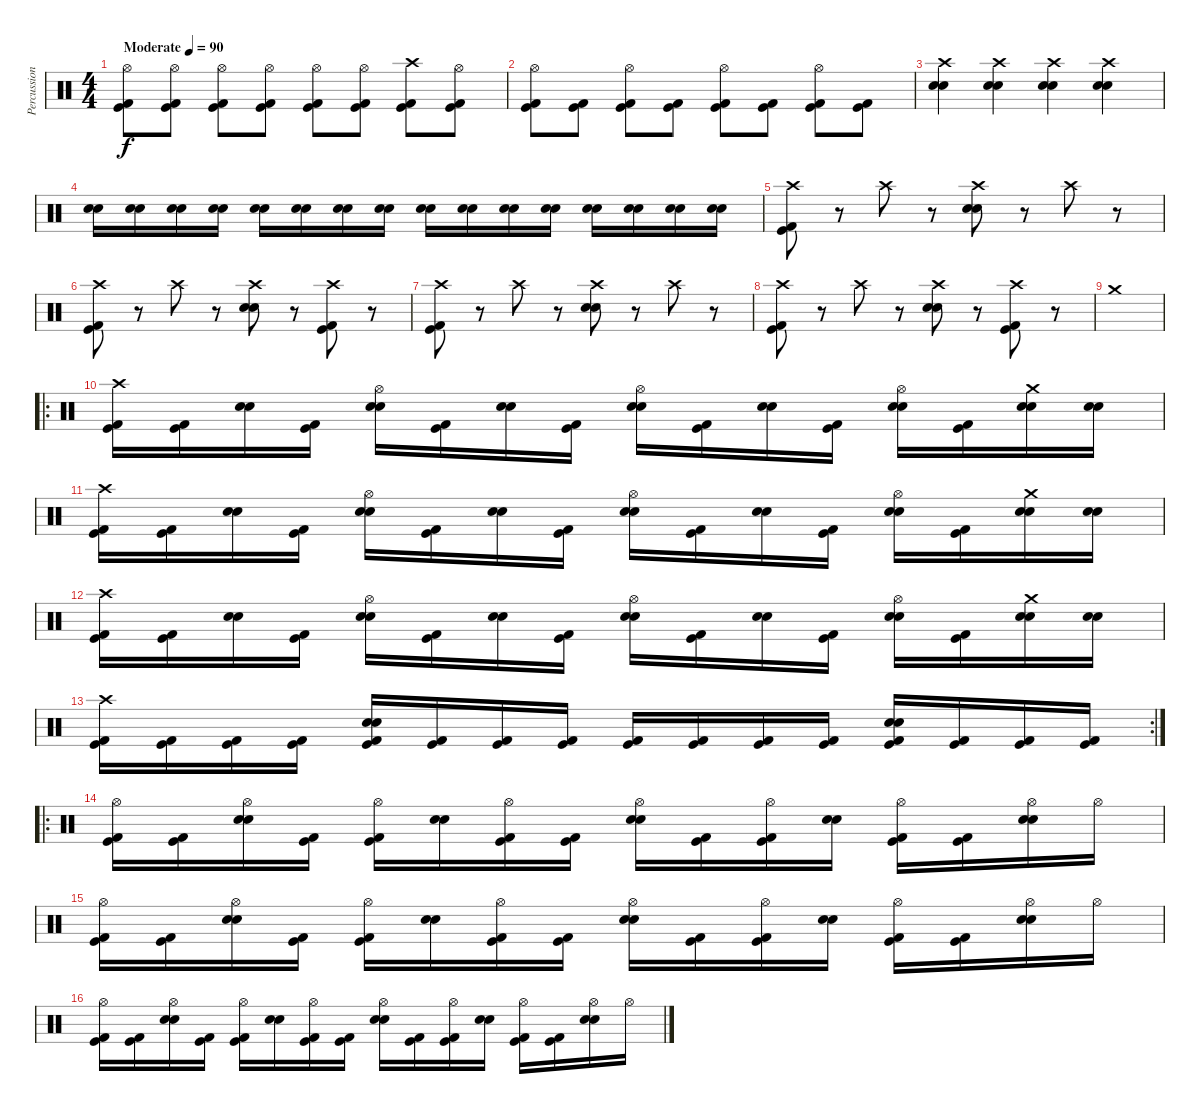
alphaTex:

\track ("Percussion" "Percussion") {instrument percussion}
\staff {score}
\articulation defaults
\ts (4 4)
\tempo (90 "Moderate")
\clef neutral
\ks c
("Kick (hit) 2" "Kick (hit)" "Hi-Hat (open)").8{dy f} ("Kick (hit) 2" "Kick (hit)" "Hi-Hat (open)").8 ("Kick (hit) 2" "Kick (hit)" "Hi-Hat (open)").8 ("Kick (hit) 2" "Kick (hit)" "Hi-Hat (open)").8 ("Kick (hit) 2" "Kick (hit)" "Hi-Hat (open)").8 ("Kick (hit) 2" "Kick (hit)" "Hi-Hat (open)").8 ("Kick (hit) 2" "Kick (hit)" "Crash high (hit)").8 ("Kick (hit) 2" "Kick (hit)" "Hi-Hat (open)").8 |
("Kick (hit) 2" "Kick (hit)" "Hi-Hat (open)").8 ("Kick (hit) 2" "Kick (hit)").8 ("Kick (hit) 2" "Kick (hit)" "Hi-Hat (open)").8 ("Kick (hit) 2" "Kick (hit)").8 ("Kick (hit) 2" "Kick (hit)" "Hi-Hat (open)").8 ("Kick (hit) 2" "Kick (hit)").8 ("Kick (hit) 2" "Kick (hit)" "Hi-Hat (open)").8 ("Kick (hit) 2" "Kick (hit)").8 |
("Snare (hit) 2" "Electric Snare (hit)" "Crash high (hit)").4 ("Snare (hit) 2" "Electric Snare (hit)" "Crash high (hit)").4 ("Snare (hit) 2" "Electric Snare (hit)" "Crash high (hit)").4 ("Snare (hit) 2" "Electric Snare (hit)" "Crash high (hit)").4 |
("Electric Snare (hit)" "Snare (hit) 2").16 ("Electric Snare (hit)" "Snare (hit) 2").16 ("Electric Snare (hit)" "Snare (hit) 2").16 ("Electric Snare (hit)" "Snare (hit) 2").16 ("Electric Snare (hit)" "Snare (hit) 2").16 ("Electric Snare (hit)" "Snare (hit) 2").16 ("Electric Snare (hit)" "Snare (hit) 2").16 ("Electric Snare (hit)" "Snare (hit) 2").16 ("Electric Snare (hit)" "Snare (hit) 2").16 ("Electric Snare (hit)" "Snare (hit) 2").16 ("Electric Snare (hit)" "Snare (hit) 2").16 ("Electric Snare (hit)" "Snare (hit) 2").16 ("Electric Snare (hit)" "Snare (hit) 2").16 ("Electric Snare (hit)" "Snare (hit) 2").16 ("Electric Snare (hit)" "Snare (hit) 2").16 ("Electric Snare (hit)" "Snare (hit) 2").16 |
("Kick (hit)" "Kick (hit) 2" "Crash high (hit)").8 r.8 "Crash high (hit)".8 r.8 ("Snare (hit) 2" "Electric Snare (hit)" "Crash high (hit)").8 r.8 "Crash high (hit)".8 r.8 |
("Kick (hit)" "Kick (hit) 2" "Crash high (hit)").8 r.8 "Crash high (hit)".8 r.8 ("Snare (hit) 2" "Electric Snare (hit)" "Crash high (hit)").8 r.8 ("Kick (hit) 2" "Kick (hit)" "Crash high (hit)").8 r.8 |
("Kick (hit)" "Kick (hit) 2" "Crash high (hit)").8 r.8 "Crash high (hit)".8 r.8 ("Snare (hit) 2" "Electric Snare (hit)" "Crash high (hit)").8 r.8 "Crash high (hit)".8 r.8 |
("Kick (hit)" "Kick (hit) 2" "Crash high (hit)").8 r.8 "Crash high (hit)".8 r.8 ("Snare (hit) 2" "Electric Snare (hit)" "Crash high (hit)").8 r.8 ("Kick (hit) 2" "Kick (hit)" "Crash high (hit)").8 r.8 |
"Crash medium (hit)".1 |
\ro
("Kick (hit) 2" "Kick (hit)" "Crash high (hit)").16 ("Kick (hit) 2" "Kick (hit)").16 ("Electric Snare (hit)" "Snare (hit) 2").16 ("Kick (hit) 2" "Kick (hit)").16 ("Electric Snare (hit)" "Snare (hit) 2" "Hi-Hat (open)").16 ("Kick (hit) 2" "Kick (hit)").16 ("Electric Snare (hit)" "Snare (hit) 2").16 ("Kick (hit) 2" "Kick (hit)").16 ("Electric Snare (hit)" "Snare (hit) 2" "Hi-Hat (open)").16 ("Kick (hit) 2" "Kick (hit)").16 ("Electric Snare (hit)" "Snare (hit) 2").16 ("Kick (hit) 2" "Kick (hit)").16 ("Electric Snare (hit)" "Snare (hit) 2" "Hi-Hat (open)").16 ("Kick (hit) 2" "Kick (hit)").16 ("Electric Snare (hit)" "Snare (hit) 2" "Crash medium (hit)").16 ("Electric Snare (hit)" "Snare (hit) 2").16 |
("Kick (hit) 2" "Kick (hit)" "Crash high (hit)").16 ("Kick (hit) 2" "Kick (hit)").16 ("Electric Snare (hit)" "Snare (hit) 2").16 ("Kick (hit) 2" "Kick (hit)").16 ("Electric Snare (hit)" "Snare (hit) 2" "Hi-Hat (open)").16 ("Kick (hit) 2" "Kick (hit)").16 ("Electric Snare (hit)" "Snare (hit) 2").16 ("Kick (hit) 2" "Kick (hit)").16 ("Electric Snare (hit)" "Snare (hit) 2" "Hi-Hat (open)").16 ("Kick (hit) 2" "Kick (hit)").16 ("Electric Snare (hit)" "Snare (hit) 2").16 ("Kick (hit) 2" "Kick (hit)").16 ("Electric Snare (hit)" "Snare (hit) 2" "Hi-Hat (open)").16 ("Kick (hit) 2" "Kick (hit)").16 ("Electric Snare (hit)" "Snare (hit) 2" "Crash medium (hit)").16 ("Electric Snare (hit)" "Snare (hit) 2").16 |
("Kick (hit) 2" "Kick (hit)" "Crash high (hit)").16 ("Kick (hit) 2" "Kick (hit)").16 ("Electric Snare (hit)" "Snare (hit) 2").16 ("Kick (hit) 2" "Kick (hit)").16 ("Electric Snare (hit)" "Snare (hit) 2" "Hi-Hat (open)").16 ("Kick (hit) 2" "Kick (hit)").16 ("Electric Snare (hit)" "Snare (hit) 2").16 ("Kick (hit) 2" "Kick (hit)").16 ("Electric Snare (hit)" "Snare (hit) 2" "Hi-Hat (open)").16 ("Kick (hit) 2" "Kick (hit)").16 ("Electric Snare (hit)" "Snare (hit) 2").16 ("Kick (hit) 2" "Kick (hit)").16 ("Electric Snare (hit)" "Snare (hit) 2" "Hi-Hat (open)").16 ("Kick (hit) 2" "Kick (hit)").16 ("Electric Snare (hit)" "Snare (hit) 2" "Crash medium (hit)").16 ("Electric Snare (hit)" "Snare (hit) 2").16 |
\rc 2
("Kick (hit) 2" "Kick (hit)" "Crash high (hit)").16 ("Kick (hit) 2" "Kick (hit)").16 ("Kick (hit) 2" "Kick (hit)").16 ("Kick (hit) 2" "Kick (hit)").16 ("Kick (hit) 2" "Kick (hit)" "Electric Snare (hit)" "Snare (hit) 2").16 ("Kick (hit) 2" "Kick (hit)").16 ("Kick (hit) 2" "Kick (hit)").16 ("Kick (hit) 2" "Kick (hit)").16 ("Kick (hit) 2" "Kick (hit)").16 ("Kick (hit) 2" "Kick (hit)").16 ("Kick (hit) 2" "Kick (hit)").16 ("Kick (hit) 2" "Kick (hit)").16 ("Kick (hit) 2" "Kick (hit)" "Electric Snare (hit)" "Snare (hit) 2").16 ("Kick (hit) 2" "Kick (hit)").16 ("Kick (hit) 2" "Kick (hit)").16 ("Kick (hit) 2" "Kick (hit)").16 |
\ro
("Kick (hit) 2" "Kick (hit)" "Hi-Hat (open)").16 ("Kick (hit) 2" "Kick (hit)").16 ("Electric Snare (hit)" "Snare (hit) 2" "Hi-Hat (open)").16 ("Kick (hit) 2" "Kick (hit)").16 ("Kick (hit) 2" "Kick (hit)" "Hi-Hat (open)").16 ("Electric Snare (hit)" "Snare (hit) 2").16 ("Kick (hit) 2" "Kick (hit)" "Hi-Hat (open)").16 ("Kick (hit) 2" "Kick (hit)").16 ("Electric Snare (hit)" "Snare (hit) 2" "Hi-Hat (open)").16 ("Kick (hit) 2" "Kick (hit)").16 ("Kick (hit) 2" "Kick (hit)" "Hi-Hat (open)").16 ("Electric Snare (hit)" "Snare (hit) 2").16 ("Kick (hit) 2" "Kick (hit)" "Hi-Hat (open)").16 ("Kick (hit) 2" "Kick (hit)").16 ("Electric Snare (hit)" "Snare (hit) 2" "Hi-Hat (open)").16 "Hi-Hat (open)".16 |
("Kick (hit) 2" "Kick (hit)" "Hi-Hat (open)").16 ("Kick (hit) 2" "Kick (hit)").16 ("Electric Snare (hit)" "Snare (hit) 2" "Hi-Hat (open)").16 ("Kick (hit) 2" "Kick (hit)").16 ("Kick (hit) 2" "Kick (hit)" "Hi-Hat (open)").16 ("Electric Snare (hit)" "Snare (hit) 2").16 ("Kick (hit) 2" "Kick (hit)" "Hi-Hat (open)").16 ("Kick (hit) 2" "Kick (hit)").16 ("Electric Snare (hit)" "Snare (hit) 2" "Hi-Hat (open)").16 ("Kick (hit) 2" "Kick (hit)").16 ("Kick (hit) 2" "Kick (hit)" "Hi-Hat (open)").16 ("Electric Snare (hit)" "Snare (hit) 2").16 ("Kick (hit) 2" "Kick (hit)" "Hi-Hat (open)").16 ("Kick (hit) 2" "Kick (hit)").16 ("Electric Snare (hit)" "Snare (hit) 2" "Hi-Hat (open)").16 "Hi-Hat (open)".16 |
("Kick (hit) 2" "Kick (hit)" "Hi-Hat (open)").16 ("Kick (hit) 2" "Kick (hit)").16 ("Electric Snare (hit)" "Snare (hit) 2" "Hi-Hat (open)").16 ("Kick (hit) 2" "Kick (hit)").16 ("Kick (hit) 2" "Kick (hit)" "Hi-Hat (open)").16 ("Electric Snare (hit)" "Snare (hit) 2").16 ("Kick (hit) 2" "Kick (hit)" "Hi-Hat (open)").16 ("Kick (hit) 2" "Kick (hit)").16 ("Electric Snare (hit)" "Snare (hit) 2" "Hi-Hat (open)").16 ("Kick (hit) 2" "Kick (hit)").16 ("Kick (hit) 2" "Kick (hit)" "Hi-Hat (open)").16 ("Electric Snare (hit)" "Snare (hit) 2").16 ("Kick (hit) 2" "Kick (hit)" "Hi-Hat (open)").16 ("Kick (hit) 2" "Kick (hit)").16 ("Electric Snare (hit)" "Snare (hit) 2" "Hi-Hat (open)").16 "Hi-Hat (open)".16
